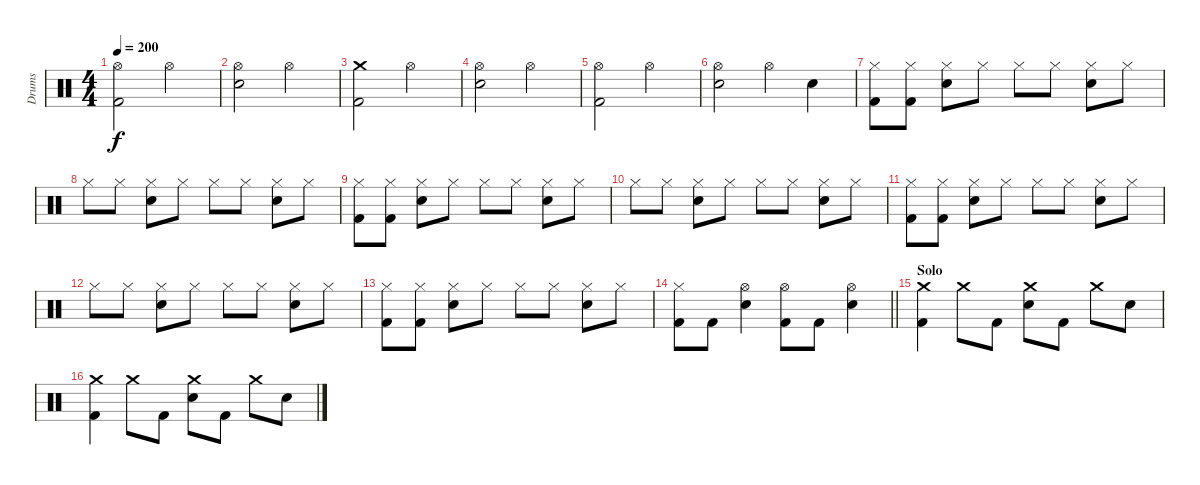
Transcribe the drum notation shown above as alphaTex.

\track ("Drums" "Drums") {instrument percussion}
\staff {score}
\articulation defaults
\ts (4 4)
\tempo 200
\clef neutral
\ks c
("Hi-Hat (open)" "Kick (hit) 2").2{dy f} "Hi-Hat (open)".2 |
("Hi-Hat (open)" "Electric Snare (hit)").2 "Hi-Hat (open)".2 |
("Crash medium (hit)" "Kick (hit) 2").2 "Hi-Hat (open)".2 |
("Hi-Hat (open)" "Electric Snare (hit)").2 "Hi-Hat (open)".2 |
("Hi-Hat (open)" "Kick (hit) 2").2 "Hi-Hat (open)".2 |
("Hi-Hat (open)" "Electric Snare (hit)").2 "Hi-Hat (open)".4 "Electric Snare (hit)".4 |
("Hi-Hat (closed)" "Kick (hit) 2").8 ("Hi-Hat (closed)" "Kick (hit) 2").8 ("Hi-Hat (closed)" "Electric Snare (hit)").8 "Hi-Hat (closed)".8 "Hi-Hat (closed)".8 "Hi-Hat (closed)".8 ("Hi-Hat (closed)" "Electric Snare (hit)").8 "Hi-Hat (closed)".8 |
"Hi-Hat (closed)".8 "Hi-Hat (closed)".8 ("Hi-Hat (closed)" "Electric Snare (hit)").8 "Hi-Hat (closed)".8 "Hi-Hat (closed)".8 "Hi-Hat (closed)".8 ("Hi-Hat (closed)" "Electric Snare (hit)").8 "Hi-Hat (closed)".8 |
("Hi-Hat (closed)" "Kick (hit) 2").8 ("Hi-Hat (closed)" "Kick (hit) 2").8 ("Hi-Hat (closed)" "Electric Snare (hit)").8 "Hi-Hat (closed)".8 "Hi-Hat (closed)".8 "Hi-Hat (closed)".8 ("Hi-Hat (closed)" "Electric Snare (hit)").8 "Hi-Hat (closed)".8 |
"Hi-Hat (closed)".8 "Hi-Hat (closed)".8 ("Hi-Hat (closed)" "Electric Snare (hit)").8 "Hi-Hat (closed)".8 "Hi-Hat (closed)".8 "Hi-Hat (closed)".8 ("Hi-Hat (closed)" "Electric Snare (hit)").8 "Hi-Hat (closed)".8 |
("Hi-Hat (closed)" "Kick (hit) 2").8 ("Hi-Hat (closed)" "Kick (hit) 2").8 ("Hi-Hat (closed)" "Electric Snare (hit)").8 "Hi-Hat (closed)".8 "Hi-Hat (closed)".8 "Hi-Hat (closed)".8 ("Hi-Hat (closed)" "Electric Snare (hit)").8 "Hi-Hat (closed)".8 |
"Hi-Hat (closed)".8 "Hi-Hat (closed)".8 ("Hi-Hat (closed)" "Electric Snare (hit)").8 "Hi-Hat (closed)".8 "Hi-Hat (closed)".8 "Hi-Hat (closed)".8 ("Hi-Hat (closed)" "Electric Snare (hit)").8 "Hi-Hat (closed)".8 |
("Hi-Hat (closed)" "Kick (hit) 2").8 ("Hi-Hat (closed)" "Kick (hit) 2").8 ("Hi-Hat (closed)" "Electric Snare (hit)").8 "Hi-Hat (closed)".8 "Hi-Hat (closed)".8 "Hi-Hat (closed)".8 ("Hi-Hat (closed)" "Electric Snare (hit)").8 "Hi-Hat (closed)".8 |
\barLineRight lightlight
("Hi-Hat (closed)" "Kick (hit) 2").8 "Kick (hit) 2".8 ("Hi-Hat (open)" "Electric Snare (hit)").4 ("Hi-Hat (open)" "Kick (hit) 2").8 "Kick (hit) 2".8 ("Hi-Hat (open)" "Electric Snare (hit)").4 |
\section ("" "Solo")
("Crash medium (hit)" "Kick (hit) 2").4 "Crash medium (hit)".8 "Kick (hit) 2".8 ("Crash medium (hit)" "Electric Snare (hit)").8 "Kick (hit) 2".8 "Crash medium (hit)".8 "Electric Snare (hit)".8 |
("Crash medium (hit)" "Kick (hit) 2").4 "Crash medium (hit)".8 "Kick (hit) 2".8 ("Crash medium (hit)" "Electric Snare (hit)").8 "Kick (hit) 2".8 "Crash medium (hit)".8 "Electric Snare (hit)".8
